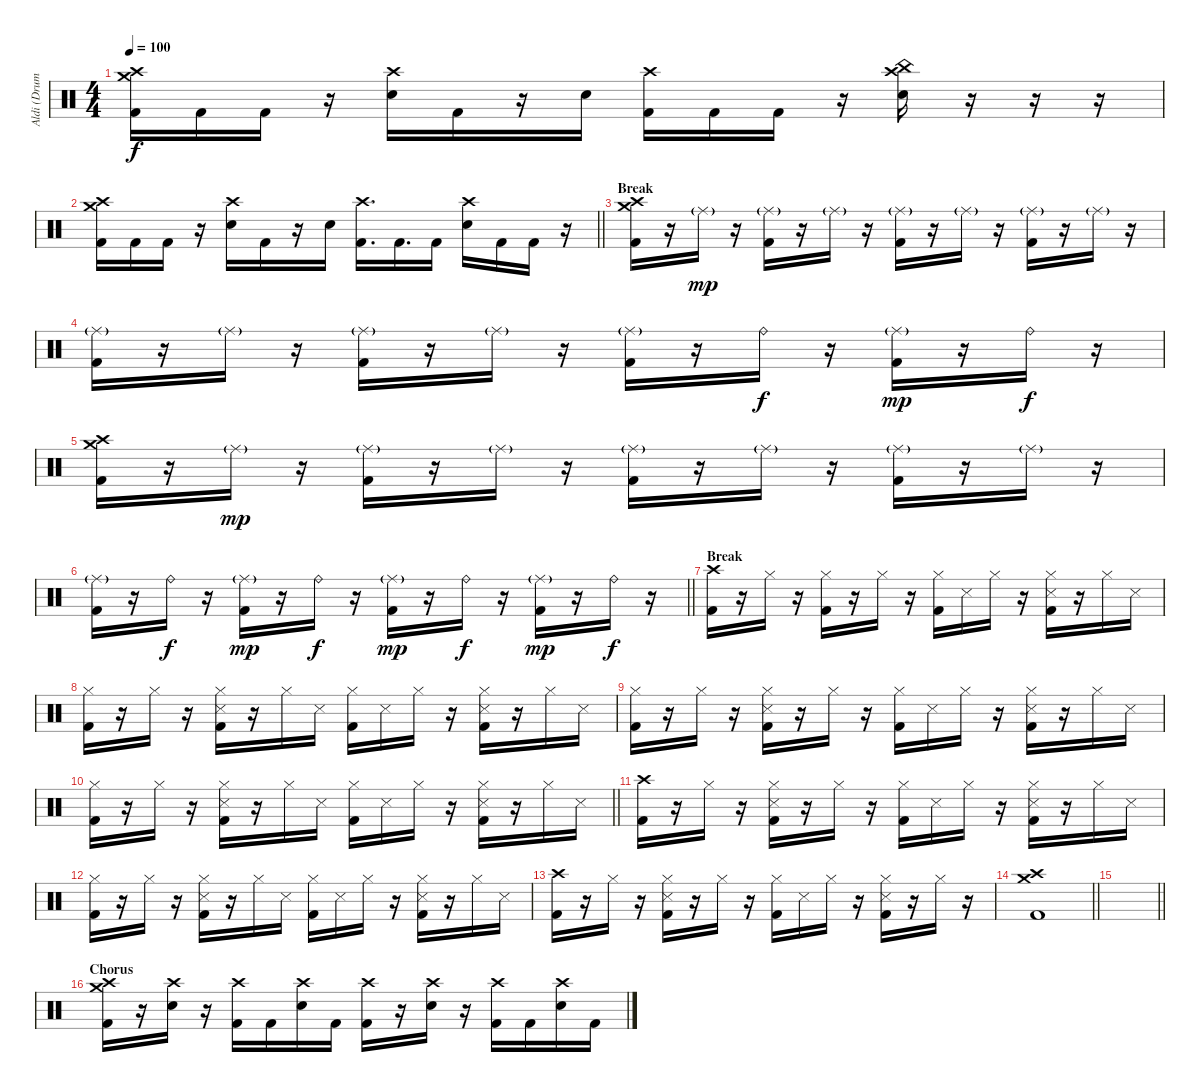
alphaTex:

\track ("Aldi (Drum)" "Aldi (Drum") {instrument percussion}
\staff {score}
\articulation defaults
\ts (4 4)
\tempo 100
\clef neutral
\ks c
("Crash medium (hit)" "Crash high (hit)" "Kick (hit) 2").16{dy f} "Kick (hit) 2".16 "Kick (hit) 2".16 r.16 ("Crash high (hit)" "Electric Snare (hit)").16 "Kick (hit) 2".16 r.16 "Electric Snare (hit)".16 ("Crash high (hit)" "Kick (hit) 2").16 "Kick (hit) 2".16 "Kick (hit) 2".16 r.16 ("China (hit)" "Crash high (hit)" "Electric Snare (hit)").16 r.16 r.16 r.16 |
\barLineRight lightlight
("Crash medium (hit)" "Crash high (hit)" "Kick (hit) 2").16 "Kick (hit) 2".16 "Kick (hit) 2".16 r.16 ("Crash high (hit)" "Electric Snare (hit)").16 "Kick (hit) 2".16 r.16 "Electric Snare (hit)".16 ("Crash high (hit)" "Kick (hit) 2").16{d} "Kick (hit) 2".16{d} "Kick (hit) 2".16 ("Crash high (hit)" "Electric Snare (hit)").16 "Kick (hit) 2".16 "Kick (hit) 2".16 r.16 |
\section ("" "Break")
("Crash high (hit)" "Crash medium (hit)" "Kick (hit) 2").16 r.16 "Ride (middle)"{g}.16{dy mp} r.16 ("Ride (middle)"{g} "Kick (hit) 2").16 r.16 "Ride (middle)"{g}.16 r.16 ("Ride (middle)"{g} "Kick (hit) 2").16 r.16 "Ride (middle)"{g}.16 r.16 ("Ride (middle)"{g} "Kick (hit) 2").16 r.16 "Ride (middle)"{g}.16 r.16 |
("Ride (middle)"{g} "Kick (hit) 2").16 r.16 "Ride (middle)"{g}.16 r.16 ("Ride (middle)"{g} "Kick (hit) 2").16 r.16 "Ride (middle)"{g}.16 r.16 ("Ride (middle)"{g} "Kick (hit) 2").16 r.16 "Ride (bell)".16{dy f} r.16 ("Ride (middle)"{g} "Kick (hit) 2").16{dy mp} r.16 "Ride (bell)".16{dy f} r.16 |
("Crash high (hit)" "Crash medium (hit)" "Kick (hit) 2").16 r.16 "Ride (middle)"{g}.16{dy mp} r.16 ("Ride (middle)"{g} "Kick (hit) 2").16 r.16 "Ride (middle)"{g}.16 r.16 ("Ride (middle)"{g} "Kick (hit) 2").16 r.16 "Ride (middle)"{g}.16 r.16 ("Ride (middle)"{g} "Kick (hit) 2").16 r.16 "Ride (middle)"{g}.16 r.16 |
\barLineRight lightlight
("Ride (middle)"{g} "Kick (hit) 2").16 r.16 "Ride (bell)".16{dy f} r.16 ("Ride (middle)"{g} "Kick (hit) 2").16{dy mp} r.16 "Ride (bell)".16{dy f} r.16 ("Ride (middle)"{g} "Kick (hit) 2").16{dy mp} r.16 "Ride (bell)".16{dy f} r.16 ("Ride (middle)"{g} "Kick (hit) 2").16{dy mp} r.16 "Ride (bell)".16{dy f} r.16 |
\section ("" "Break")
("Crash high (hit)" "Kick (hit) 2").16 r.16 "Hi-Hat (closed)".16 r.16 ("Hi-Hat (closed)" "Kick (hit) 2").16 r.16 "Hi-Hat (closed)".16 r.16 ("Hi-Hat (closed)" "Kick (hit) 2").16 "Metronome (hit)".16 "Hi-Hat (closed)".16 r.16 ("Hi-Hat (closed)" "Metronome (hit)" "Kick (hit) 2").16 r.16 "Hi-Hat (closed)".16 "Metronome (hit)".16 |
("Hi-Hat (closed)" "Kick (hit) 2").16 r.16 "Hi-Hat (closed)".16 r.16 ("Hi-Hat (closed)" "Metronome (hit)" "Kick (hit) 2").16 r.16 "Hi-Hat (closed)".16 "Metronome (hit)".16 ("Hi-Hat (closed)" "Kick (hit) 2").16 "Metronome (hit)".16 "Hi-Hat (closed)".16 r.16 ("Hi-Hat (closed)" "Metronome (hit)" "Kick (hit) 2").16 r.16 "Hi-Hat (closed)".16 "Metronome (hit)".16 |
("Hi-Hat (closed)" "Kick (hit) 2").16 r.16 "Hi-Hat (closed)".16 r.16 ("Hi-Hat (closed)" "Metronome (hit)" "Kick (hit) 2").16 r.16 "Hi-Hat (closed)".16 r.16 ("Hi-Hat (closed)" "Kick (hit) 2").16 "Metronome (hit)".16 "Hi-Hat (closed)".16 r.16 ("Hi-Hat (closed)" "Metronome (hit)" "Kick (hit) 2").16 r.16 "Hi-Hat (closed)".16 "Metronome (hit)".16 |
\barLineRight lightlight
("Hi-Hat (closed)" "Kick (hit) 2").16 r.16 "Hi-Hat (closed)".16 r.16 ("Hi-Hat (closed)" "Metronome (hit)" "Kick (hit) 2").16 r.16 "Hi-Hat (closed)".16 "Metronome (hit)".16 ("Hi-Hat (closed)" "Kick (hit) 2").16 "Metronome (hit)".16 "Hi-Hat (closed)".16 r.16 ("Hi-Hat (closed)" "Metronome (hit)" "Kick (hit) 2").16 r.16 "Hi-Hat (closed)".16 "Metronome (hit)".16 |
("Crash high (hit)" "Kick (hit) 2").16 r.16 "Hi-Hat (closed)".16 r.16 ("Hi-Hat (closed)" "Metronome (hit)" "Kick (hit) 2").16 r.16 "Hi-Hat (closed)".16 r.16 ("Hi-Hat (closed)" "Kick (hit) 2").16 "Metronome (hit)".16 "Hi-Hat (closed)".16 r.16 ("Hi-Hat (closed)" "Metronome (hit)" "Kick (hit) 2").16 r.16 "Hi-Hat (closed)".16 "Metronome (hit)".16 |
("Hi-Hat (closed)" "Kick (hit) 2").16 r.16 "Hi-Hat (closed)".16 r.16 ("Hi-Hat (closed)" "Metronome (hit)" "Kick (hit) 2").16 r.16 "Hi-Hat (closed)".16 "Metronome (hit)".16 ("Hi-Hat (closed)" "Kick (hit) 2").16 "Metronome (hit)".16 "Hi-Hat (closed)".16 r.16 ("Hi-Hat (closed)" "Metronome (hit)" "Kick (hit) 2").16 r.16 "Hi-Hat (closed)".16 "Metronome (hit)".16 |
("Crash high (hit)" "Kick (hit) 2").16 r.16 "Hi-Hat (closed)".16 r.16 ("Hi-Hat (closed)" "Metronome (hit)" "Kick (hit) 2").16 r.16 "Hi-Hat (closed)".16 r.16 ("Hi-Hat (closed)" "Kick (hit) 2").16 "Metronome (hit)".16 "Hi-Hat (closed)".16 r.16 ("Hi-Hat (closed)" "Metronome (hit)" "Kick (hit) 2").16 r.16 "Hi-Hat (closed)".16 r.16 |
\barLineRight lightlight
("Crash medium (hit)" "Crash high (hit)" "Kick (hit) 2").1 |
\barLineRight lightlight
|
\section ("" "Chorus")
("Crash medium (hit)" "Crash high (hit)" "Kick (hit) 2").16 r.16 ("Crash high (hit)" "Electric Snare (hit)").16 r.16 ("Crash high (hit)" "Kick (hit) 2").16 "Kick (hit) 2".16 ("Crash high (hit)" "Electric Snare (hit)").16 "Kick (hit) 2".16 ("Crash high (hit)" "Kick (hit) 2").16 r.16 ("Crash high (hit)" "Electric Snare (hit)").16 r.16 ("Crash high (hit)" "Kick (hit) 2").16 "Kick (hit) 2".16 ("Crash high (hit)" "Electric Snare (hit)").16 "Kick (hit) 2".16
